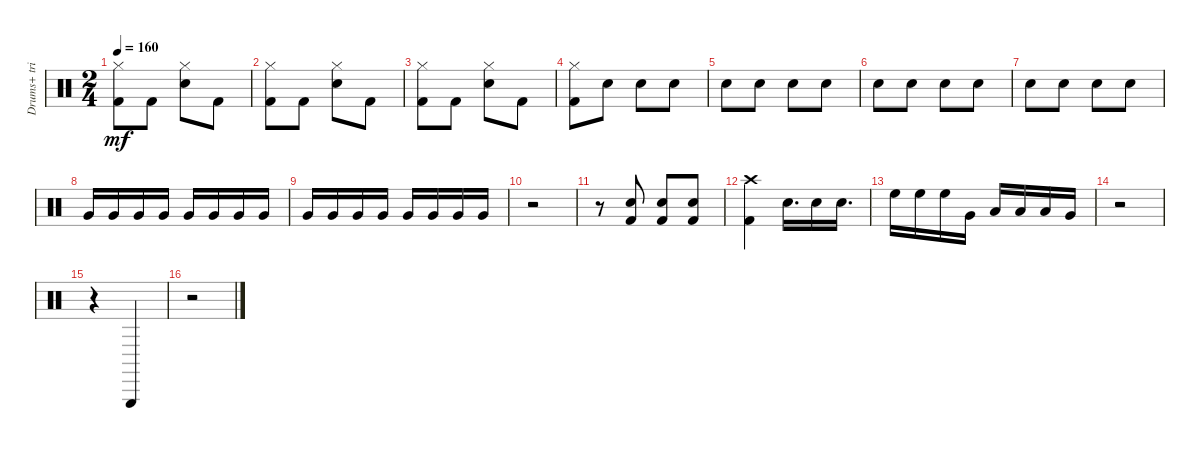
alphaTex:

\track ("Drums+ triangle" "Drums+ tri") {instrument percussion}
\staff {score}
\articulation defaults
\ts (2 4)
\tempo 160
\clef neutral
\ks c
("Kick (hit) 2" "Hi-Hat (closed)").8{dy mf} "Kick (hit) 2".8 ("Snare (hit) 2" "Hi-Hat (closed)").8 "Kick (hit) 2".8 |
("Kick (hit) 2" "Hi-Hat (closed)").8 "Kick (hit) 2".8 ("Snare (hit) 2" "Hi-Hat (closed)").8 "Kick (hit) 2".8 |
("Kick (hit) 2" "Hi-Hat (closed)").8 "Kick (hit) 2".8 ("Snare (hit) 2" "Hi-Hat (closed)").8 "Kick (hit) 2".8 |
("Kick (hit) 2" "Hi-Hat (closed)").8 "Snare (hit) 2".8 "Snare (hit) 2".8 "Snare (hit) 2".8 |
"Snare (hit) 2".8 "Snare (hit) 2".8 "Snare (hit) 2".8 "Snare (hit) 2".8 |
"Snare (hit) 2".8 "Snare (hit) 2".8 "Snare (hit) 2".8 "Snare (hit) 2".8 |
"Snare (hit) 2".8 "Snare (hit) 2".8 "Snare (hit) 2".8 "Snare (hit) 2".8 |
"Very Low Tom (hit)".16 "Very Low Tom (hit)".16 "Very Low Tom (hit)".16 "Very Low Tom (hit)".16 "Very Low Tom (hit)".16 "Very Low Tom (hit)".16 "Very Low Tom (hit)".16 "Very Low Tom (hit)".16 |
"Very Low Tom (hit)".16 "Very Low Tom (hit)".16 "Very Low Tom (hit)".16 "Very Low Tom (hit)".16 "Very Low Tom (hit)".16 "Very Low Tom (hit)".16 "Very Low Tom (hit)".16 "Very Low Tom (hit)".16 |
r.2 |
r.8 ("Kick (hit) 2" "Snare (hit) 2").8 ("Kick (hit) 2" "Snare (hit) 2").8 ("Kick (hit) 2" "Snare (hit) 2").8 |
("Crash high (hit)" "Kick (hit) 2").4 "Snare (hit) 2".16{d} "Snare (hit) 2".16 "Snare (hit) 2".16{d} |
"High Floor Tom (hit)".16 "High Floor Tom (hit)".16 "High Floor Tom (hit)".16 "Very Low Tom (hit)".16 "Low Tom (hit)".16 "Low Tom (hit)".16 "Low Tom (hit)".16 "Very Low Tom (hit)".16 |
r.2 |
r.4 "Triangle (hit)".4 |
r.2
